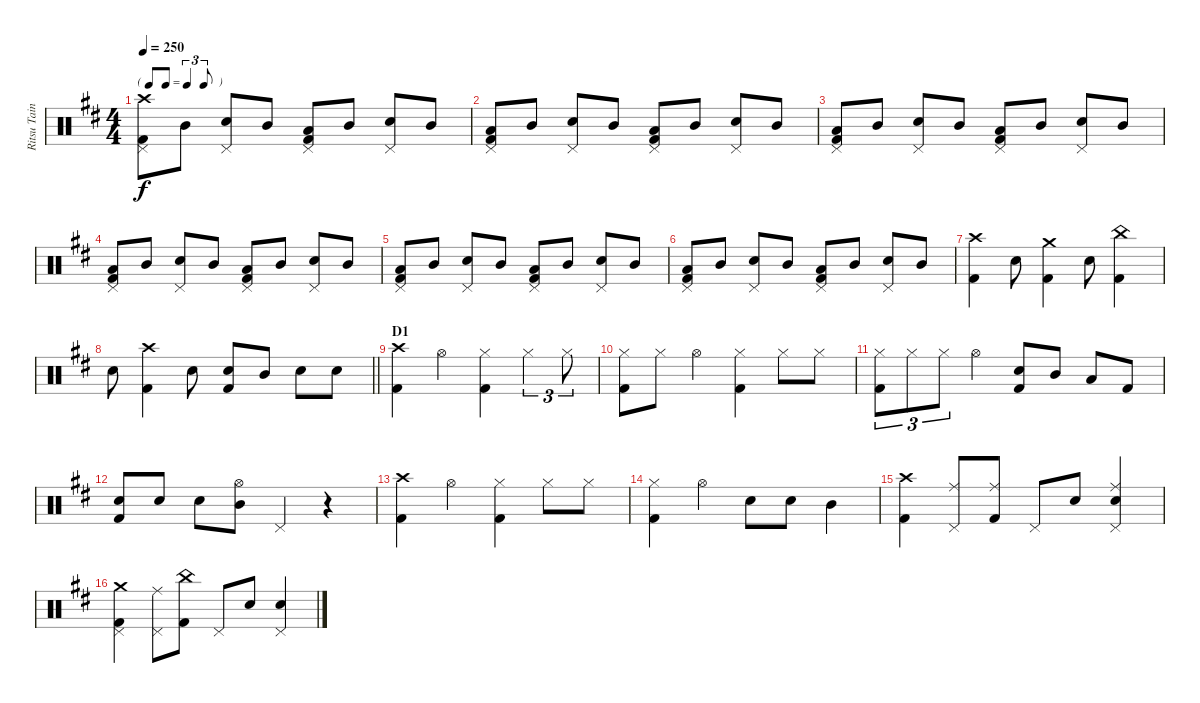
\track ("Ritsu Tainaka" "Ritsu Tain") {instrument percussion}
\staff {score}
\articulation defaults
\ts (4 4)
\tf triplet8th
\tempo 250
\clef neutral
\ks d
("Crash high (hit)" "Pedal Hi-Hat (hit)" "Kick (hit) 2").8{dy f} "Mid Tom (hit)".8 ("Pedal Hi-Hat (hit)" "Electric Snare (hit)").8 "Mid Tom (hit)".8 ("Pedal Hi-Hat (hit)" "Low Floor Tom (hit)" "Kick (hit) 2").8 "Mid Tom (hit)".8 ("Pedal Hi-Hat (hit)" "Electric Snare (hit)").8 "Mid Tom (hit)".8 |
("Pedal Hi-Hat (hit)" "Low Floor Tom (hit)" "Kick (hit) 2").8 "Mid Tom (hit)".8 ("Pedal Hi-Hat (hit)" "Electric Snare (hit)").8 "Mid Tom (hit)".8 ("Pedal Hi-Hat (hit)" "Low Floor Tom (hit)" "Kick (hit) 2").8 "Mid Tom (hit)".8 ("Pedal Hi-Hat (hit)" "Electric Snare (hit)").8 "Mid Tom (hit)".8 |
("Pedal Hi-Hat (hit)" "Low Floor Tom (hit)" "Kick (hit) 2").8 "Mid Tom (hit)".8 ("Pedal Hi-Hat (hit)" "Electric Snare (hit)").8 "Mid Tom (hit)".8 ("Pedal Hi-Hat (hit)" "Low Floor Tom (hit)" "Kick (hit) 2").8 "Mid Tom (hit)".8 ("Pedal Hi-Hat (hit)" "Electric Snare (hit)").8 "Mid Tom (hit)".8 |
("Pedal Hi-Hat (hit)" "Low Floor Tom (hit)" "Kick (hit) 2").8 "Mid Tom (hit)".8 ("Pedal Hi-Hat (hit)" "Electric Snare (hit)").8 "Mid Tom (hit)".8 ("Pedal Hi-Hat (hit)" "Low Floor Tom (hit)" "Kick (hit) 2").8 "Mid Tom (hit)".8 ("Pedal Hi-Hat (hit)" "Electric Snare (hit)").8 "Mid Tom (hit)".8 |
("Pedal Hi-Hat (hit)" "Low Floor Tom (hit)" "Kick (hit) 2").8 "Mid Tom (hit)".8 ("Pedal Hi-Hat (hit)" "Electric Snare (hit)").8 "Mid Tom (hit)".8 ("Pedal Hi-Hat (hit)" "Low Floor Tom (hit)" "Kick (hit) 2").8 "Mid Tom (hit)".8 ("Pedal Hi-Hat (hit)" "Electric Snare (hit)").8 "Mid Tom (hit)".8 |
("Pedal Hi-Hat (hit)" "Low Floor Tom (hit)" "Kick (hit) 2").8 "Mid Tom (hit)".8 ("Pedal Hi-Hat (hit)" "Electric Snare (hit)").8 "Mid Tom (hit)".8 ("Pedal Hi-Hat (hit)" "Low Floor Tom (hit)" "Kick (hit) 2").8 "Mid Tom (hit)".8 ("Pedal Hi-Hat (hit)" "Electric Snare (hit)").8 "Mid Tom (hit)".8 |
("Crash high (hit)" "Kick (hit) 2").4 "Electric Snare (hit)".8 ("Crash medium (hit)" "Kick (hit) 2").4 "Electric Snare (hit)".8 ("China (hit)" "Kick (hit) 2").4 |
\barLineRight lightlight "Electric Snare (hit)".8
("Crash high (hit)" "Kick (hit) 2").4 "Electric Snare (hit)".8 ("Electric Snare (hit)" "Kick (hit) 2").8 "Mid Tom (hit)".8 "Electric Snare (hit)".8 "Electric Snare (hit)".8 |
\section ("" "D1")
("Crash high (hit)" "Kick (hit) 2").4 "Hi-Hat (open)".4 ("Hi-Hat (closed)" "Kick (hit) 2").4 "Hi-Hat (closed)".4{tu (3 2)} "Hi-Hat (closed)".8{tu (3 2)} |
("Hi-Hat (closed)" "Kick (hit) 2").8 "Hi-Hat (closed)".8 "Hi-Hat (open)".4 ("Hi-Hat (closed)" "Kick (hit) 2").4 "Hi-Hat (closed)".8 "Hi-Hat (closed)".8 |
("Hi-Hat (closed)" "Kick (hit) 2").8{tu (3 2)} "Hi-Hat (closed)".8{tu (3 2)} "Hi-Hat (closed)".8{tu (3 2)} "Hi-Hat (open)".4 ("Electric Snare (hit)" "Kick (hit) 2").8 "Mid Tom (hit)".8 "Low Floor Tom (hit)".8 "Kick (hit) 2".8 |
("Electric Snare (hit)" "Kick (hit) 2").8 "Electric Snare (hit)".8 "Electric Snare (hit)".8 ("Hi-Hat (open)" "Mid Tom (hit)").8 "Pedal Hi-Hat (hit)".4 r.4 |
("Crash high (hit)" "Kick (hit) 2").4 "Hi-Hat (open)".4 ("Hi-Hat (closed)" "Kick (hit) 2").4 "Hi-Hat (closed)".8 "Hi-Hat (closed)".8 |
("Hi-Hat (closed)" "Kick (hit) 2").4 "Hi-Hat (open)".4 "Electric Snare (hit)".8 "Electric Snare (hit)".8 "Mid Tom (hit)".4 |
("Crash high (hit)" "Kick (hit) 2").4 ("Ride (middle)" "Pedal Hi-Hat (hit)").8 ("Ride (middle)" "Kick (hit) 2").8 "Pedal Hi-Hat (hit)".8 "Electric Snare (hit)".8 ("Ride (middle)" "Pedal Hi-Hat (hit)" "Electric Snare (hit)").4 |
("Crash medium (hit)" "Pedal Hi-Hat (hit)" "Kick (hit) 2").4 ("Ride (middle)" "Pedal Hi-Hat (hit)").8 ("China (hit)" "Kick (hit) 2").8 "Pedal Hi-Hat (hit)".8 "Electric Snare (hit)".8 ("Pedal Hi-Hat (hit)" "Electric Snare (hit)").4
